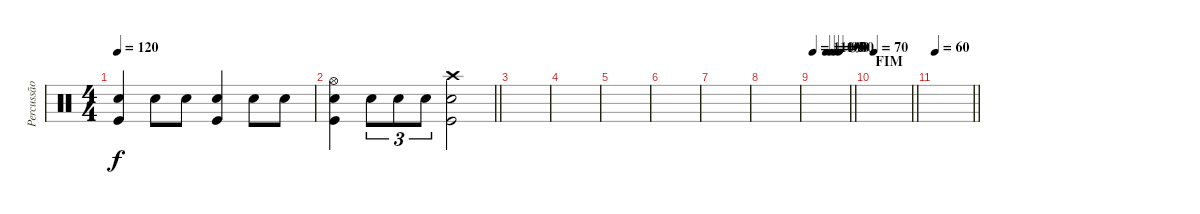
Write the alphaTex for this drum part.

\track ("Percussão" "Percussão") {instrument percussion}
\staff {score}
\articulation defaults
\ts (4 4)
\tempo 120
\clef neutral
\ks c
("Snare (hit) 2" "Kick (hit)").4{dy f} "Snare (hit) 2".8 "Snare (hit) 2".8 ("Snare (hit) 2" "Kick (hit)").4 "Snare (hit) 2".8 "Snare (hit) 2".8 |
\barLineRight lightlight
("Hi-Hat (open)" "Snare (hit) 2" "Kick (hit)").4 "Snare (hit) 2".8{tu (3 2)} "Snare (hit) 2".8{tu (3 2)} "Snare (hit) 2".8{tu (3 2)} ("Crash high (hit)" "Snare (hit) 2" "Kick (hit)").2 |
|
|
|
|
|
|
\tempo 110
\tempo (100 0.375)
\tempo (95 0.5)
\tempo (90 0.625)
\tempo (80 0.75)
\barLineRight lightlight
|
\section ("" "FIM")
\tempo 70
\barLineRight lightlight
|
\tempo 60
\barLineRight lightlight
